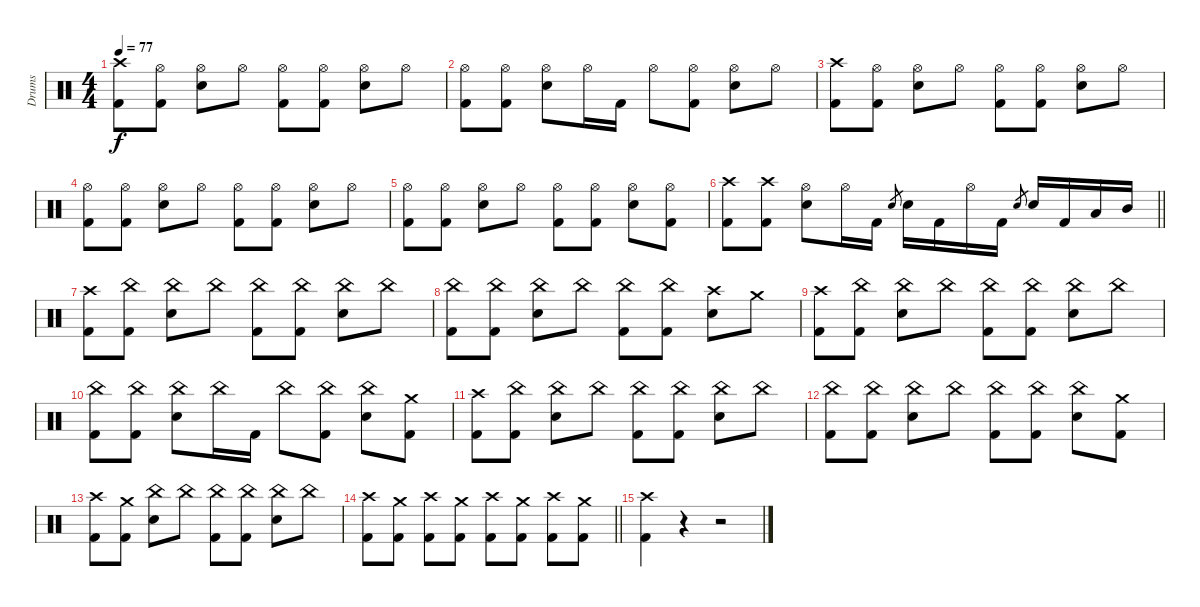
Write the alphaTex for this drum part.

\track ("Drums" "Drums") {instrument percussion}
\staff {score}
\articulation defaults
\ts (4 4)
\tempo 77
\clef neutral
\ks c
("Kick (hit) 2" "Crash high (hit)").8{dy f} ("Kick (hit) 2" "Hi-Hat (open)").8 ("Electric Snare (hit)" "Hi-Hat (open)").8 "Hi-Hat (open)".8 ("Kick (hit) 2" "Hi-Hat (open)").8 ("Kick (hit) 2" "Hi-Hat (open)").8 ("Electric Snare (hit)" "Hi-Hat (open)").8 "Hi-Hat (open)".8 |
("Kick (hit) 2" "Hi-Hat (open)").8 ("Kick (hit) 2" "Hi-Hat (open)").8 ("Electric Snare (hit)" "Hi-Hat (open)").8 "Hi-Hat (open)".16 "Kick (hit) 2".16 "Hi-Hat (open)".8 ("Kick (hit) 2" "Hi-Hat (open)").8 ("Electric Snare (hit)" "Hi-Hat (open)").8 "Hi-Hat (open)".8 |
("Kick (hit) 2" "Crash high (hit)").8 ("Kick (hit) 2" "Hi-Hat (open)").8 ("Electric Snare (hit)" "Hi-Hat (open)").8 "Hi-Hat (open)".8 ("Kick (hit) 2" "Hi-Hat (open)").8 ("Kick (hit) 2" "Hi-Hat (open)").8 ("Electric Snare (hit)" "Hi-Hat (open)").8 "Hi-Hat (open)".8 |
("Kick (hit) 2" "Hi-Hat (open)").8 ("Kick (hit) 2" "Hi-Hat (open)").8 ("Electric Snare (hit)" "Hi-Hat (open)").8 "Hi-Hat (open)".8 ("Kick (hit) 2" "Hi-Hat (open)").8 ("Kick (hit) 2" "Hi-Hat (open)").8 ("Electric Snare (hit)" "Hi-Hat (open)").8 "Hi-Hat (open)".8 |
("Kick (hit) 2" "Hi-Hat (open)").8 ("Kick (hit) 2" "Hi-Hat (open)").8 ("Electric Snare (hit)" "Hi-Hat (open)").8 "Hi-Hat (open)".8 ("Kick (hit) 2" "Hi-Hat (open)").8 ("Kick (hit) 2" "Hi-Hat (open)").8 ("Electric Snare (hit)" "Hi-Hat (open)").8 ("Kick (hit) 2" "Hi-Hat (open)").8 |
\barLineRight lightlight
("Kick (hit) 2" "Crash high (hit)").8 ("Kick (hit) 2" "Crash high (hit)").8 ("Electric Snare (hit)" "Hi-Hat (open)").8 "Hi-Hat (open)".16 "Kick (hit) 2".16 "Electric Snare (hit)".8{gr} "Electric Snare (hit)".16 "Kick (hit) 2".16 "Hi-Hat (open)".16 "Kick (hit) 2".16 "Electric Snare (hit)".8{gr} "Electric Snare (hit)".16 "Kick (hit) 2".16 "Low Tom (hit)".16 "Mid Tom (hit)".16 |
("Kick (hit) 2" "Crash high (hit)").8 ("Kick (hit) 2" "China (hit)").8 ("Electric Snare (hit)" "China (hit)").8 "China (hit)".8 ("Kick (hit) 2" "China (hit)").8 ("Kick (hit) 2" "China (hit)").8 ("Electric Snare (hit)" "China (hit)").8 "China (hit)".8 |
("Kick (hit) 2" "China (hit)").8 ("Kick (hit) 2" "China (hit)").8 ("Electric Snare (hit)" "China (hit)").8 "China (hit)".8 ("Kick (hit) 2" "China (hit)").8 ("Kick (hit) 2" "China (hit)").8 ("Electric Snare (hit)" "Crash high (hit)").8 "Crash medium (hit)".8 |
("Kick (hit) 2" "Crash high (hit)").8 ("Kick (hit) 2" "China (hit)").8 ("Electric Snare (hit)" "China (hit)").8 "China (hit)".8 ("Kick (hit) 2" "China (hit)").8 ("Kick (hit) 2" "China (hit)").8 ("Electric Snare (hit)" "China (hit)").8 "China (hit)".8 |
("Kick (hit) 2" "China (hit)").8 ("Kick (hit) 2" "China (hit)").8 ("Electric Snare (hit)" "China (hit)").8 "China (hit)".16 "Kick (hit) 2".16 "China (hit)".8 ("Kick (hit) 2" "China (hit)").8 ("Electric Snare (hit)" "China (hit)").8 ("Kick (hit) 2" "Crash medium (hit)").8 |
("Kick (hit) 2" "Crash high (hit)").8 ("Kick (hit) 2" "China (hit)").8 ("Electric Snare (hit)" "China (hit)").8 "China (hit)".8 ("Kick (hit) 2" "China (hit)").8 ("Kick (hit) 2" "China (hit)").8 ("Electric Snare (hit)" "China (hit)").8 "China (hit)".8 |
("Kick (hit) 2" "China (hit)").8 ("Kick (hit) 2" "China (hit)").8 ("Electric Snare (hit)" "China (hit)").8 "China (hit)".8 ("Kick (hit) 2" "China (hit)").8 ("Kick (hit) 2" "China (hit)").8 ("Electric Snare (hit)" "China (hit)").8 ("Kick (hit) 2" "Crash medium (hit)").8 |
("Kick (hit) 2" "Crash high (hit)").8 ("Kick (hit) 2" "Crash medium (hit)").8 ("Electric Snare (hit)" "China (hit)").8 "China (hit)".8 ("Kick (hit) 2" "China (hit)").8 ("Kick (hit) 2" "China (hit)").8 ("Electric Snare (hit)" "China (hit)").8 "China (hit)".8 |
\barLineRight lightlight
("Kick (hit) 2" "Crash high (hit)").8 ("Kick (hit) 2" "Crash medium (hit)").8 ("Kick (hit) 2" "Crash high (hit)").8 ("Kick (hit) 2" "Crash medium (hit)").8 ("Kick (hit) 2" "Crash high (hit)").8 ("Kick (hit) 2" "Crash medium (hit)").8 ("Kick (hit) 2" "Crash high (hit)").8 ("Kick (hit) 2" "Crash medium (hit)").8 |
("Kick (hit) 2" "Crash high (hit)").4 r.4 r.2
